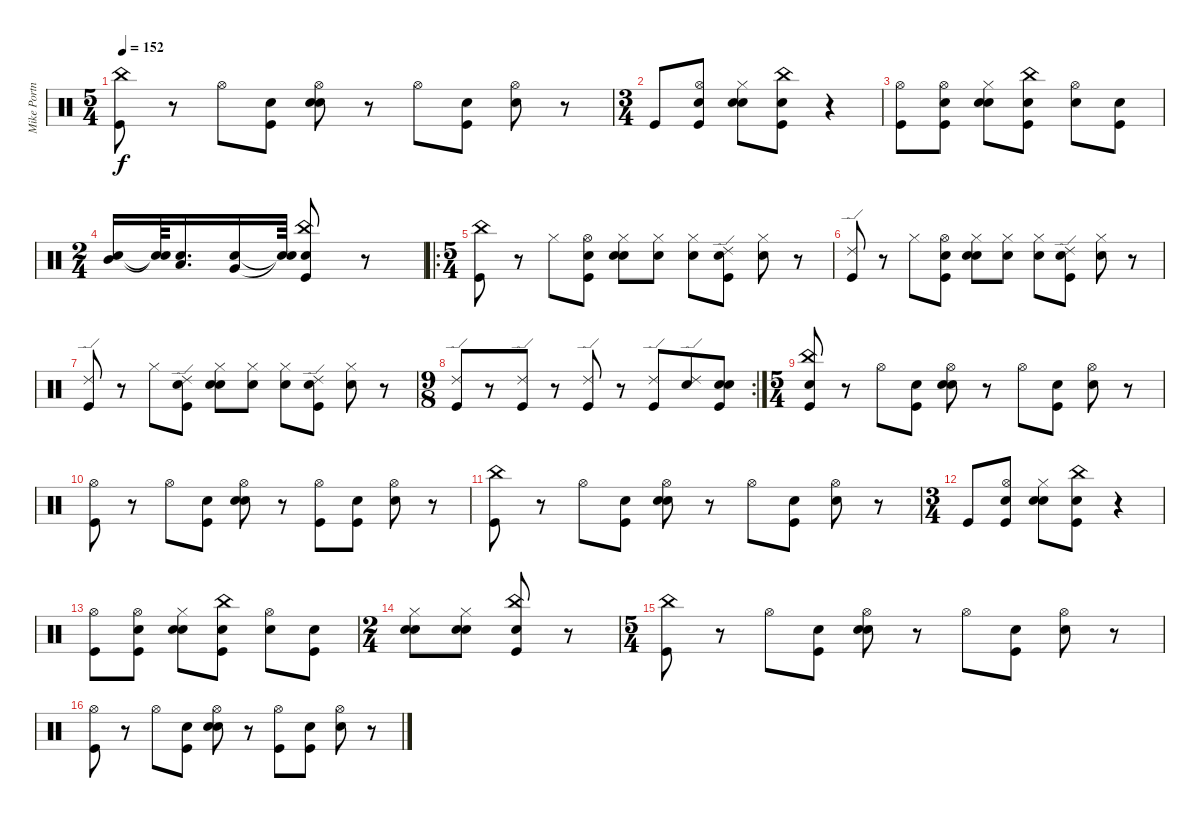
\track ("Mike Portnoy" "Mike Portn") {instrument percussion}
\staff {score}
\articulation defaults
\ts (5 4)
\tempo 152
\clef neutral
\ks c
("Kick (hit)" "China (hit)").8{dy f} r.8 "Hi-Hat (open)".8 ("Snare (hit)" "Kick (hit)").8 ("Snare (hit)" "Snare (hit) 2" "Hi-Hat (open)").8 r.8 "Hi-Hat (open)".8 ("Snare (hit)" "Kick (hit)").8 ("Snare (hit)" "Hi-Hat (open)").8 r.8 |
\ts (3 4)
"Kick (hit)".8 ("Snare (hit)" "Kick (hit)" "Hi-Hat (open)").8 ("Snare (hit)" "Snare (hit) 2" "Hi-Hat (closed)").8 ("Snare (hit)" "Kick (hit)" "China (hit)").8 r.4 |
("Kick (hit)" "Hi-Hat (open)").8 ("Snare (hit)" "Kick (hit)" "Hi-Hat (open)").8 ("Snare (hit)" "Snare (hit) 2" "Hi-Hat (closed)").8 ("Snare (hit)" "Kick (hit)" "China (hit)").8 ("Snare (hit)" "Hi-Hat (open)").8 ("Snare (hit)" "Kick (hit)").8 |
\ts (2 4)
("Snare (hit)" "Mid Tom (hit)").16 ("Snare (hit)"{t} "Snare (hit)"{t}).64 ("Snare (hit)" "Low Tom (hit)").16{d} ("Snare (hit)" "Very Low Tom (hit)").16 ("Snare (hit)"{t} "Snare (hit)"{t}).64 ("Snare (hit)" "Kick (hit)" "China (hit)").8 r.8 |
\ro
\ts (5 4)
("Kick (hit)" "China (hit)").8 r.8 "Hi-Hat (closed)".8 ("Snare (hit)" "Kick (hit)" "Hi-Hat (open)").8 ("Snare (hit)" "Snare (hit) 2" "Hi-Hat (closed)").8 ("Snare (hit)" "Hi-Hat (closed)").8 ("Snare (hit)" "Hi-Hat (closed)").8 ("Snare (hit)" "Kick (hit)" "Ride (edge) 2").8 ("Snare (hit)" "Hi-Hat (closed)").8 r.8 |
("Kick (hit)" "Ride (edge) 2").8 r.8 "Hi-Hat (closed)".8 ("Snare (hit)" "Kick (hit)" "Hi-Hat (open)").8 ("Snare (hit)" "Snare (hit) 2" "Hi-Hat (closed)").8 ("Snare (hit)" "Hi-Hat (closed)").8 ("Snare (hit)" "Hi-Hat (closed)").8 ("Snare (hit)" "Kick (hit)" "Ride (edge) 2").8 ("Snare (hit)" "Hi-Hat (closed)").8 r.8 |
("Kick (hit)" "Ride (edge) 2").8 r.8 "Hi-Hat (closed)".8 ("Snare (hit)" "Kick (hit)" "Ride (edge) 2").8 ("Snare (hit)" "Snare (hit) 2" "Hi-Hat (closed)").8 ("Snare (hit)" "Hi-Hat (closed)").8 ("Snare (hit)" "Hi-Hat (closed)").8 ("Snare (hit)" "Kick (hit)" "Ride (edge) 2").8 ("Snare (hit)" "Hi-Hat (closed)").8 r.8 |
\rc 2
\ts (9 8)
("Kick (hit)" "Ride (edge) 2").8 r.8 ("Kick (hit)" "Ride (edge) 2").8 r.8 ("Kick (hit)" "Ride (edge) 2").8 r.8 ("Kick (hit)" "Ride (edge) 2").8 ("Snare (hit)" "Ride (edge) 2").8 ("Snare (hit)" "Kick (hit)" "Snare (hit) 2").8 |
\ts (5 4)
("Snare (hit)" "Kick (hit)" "China (hit)").8 r.8 "Hi-Hat (open)".8 ("Snare (hit)" "Kick (hit)").8 ("Snare (hit)" "Snare (hit) 2" "Hi-Hat (open)").8 r.8 "Hi-Hat (open)".8 ("Snare (hit)" "Kick (hit)").8 ("Snare (hit)" "Hi-Hat (open)").8 r.8 |
("Kick (hit)" "Hi-Hat (open)").8 r.8 "Hi-Hat (open)".8 ("Snare (hit)" "Kick (hit)").8 ("Snare (hit)" "Snare (hit) 2" "Hi-Hat (open)").8 r.8 ("Kick (hit)" "Hi-Hat (open)").8 ("Snare (hit)" "Kick (hit)").8 ("Snare (hit)" "Hi-Hat (open)").8 r.8 |
("Kick (hit)" "China (hit)").8 r.8 "Hi-Hat (open)".8 ("Snare (hit)" "Kick (hit)").8 ("Snare (hit)" "Snare (hit) 2" "Hi-Hat (open)").8 r.8 "Hi-Hat (open)".8 ("Snare (hit)" "Kick (hit)").8 ("Snare (hit)" "Hi-Hat (open)").8 r.8 |
\ts (3 4)
"Kick (hit)".8 ("Snare (hit)" "Kick (hit)" "Hi-Hat (open)").8 ("Snare (hit)" "Snare (hit) 2" "Hi-Hat (closed)").8 ("Snare (hit)" "Kick (hit)" "China (hit)").8 r.4 |
("Kick (hit)" "Hi-Hat (open)").8 ("Snare (hit)" "Kick (hit)" "Hi-Hat (open)").8 ("Snare (hit)" "Snare (hit) 2" "Hi-Hat (closed)").8 ("Snare (hit)" "Kick (hit)" "China (hit)").8 ("Snare (hit)" "Hi-Hat (open)").8 ("Snare (hit)" "Kick (hit)").8 |
\ts (2 4)
("Snare (hit)" "Snare (hit) 2" "Hi-Hat (closed)").8 ("Snare (hit)" "Snare (hit) 2" "Hi-Hat (closed)").8 ("Snare (hit)" "Kick (hit)" "China (hit)").8 r.8 |
\ts (5 4)
("Kick (hit)" "China (hit)").8 r.8 "Hi-Hat (open)".8 ("Snare (hit)" "Kick (hit)").8 ("Snare (hit)" "Snare (hit) 2" "Hi-Hat (open)").8 r.8 "Hi-Hat (open)".8 ("Snare (hit)" "Kick (hit)").8 ("Snare (hit)" "Hi-Hat (open)").8 r.8 |
("Kick (hit)" "Hi-Hat (open)").8 r.8 "Hi-Hat (open)".8 ("Snare (hit)" "Kick (hit)").8 ("Snare (hit)" "Snare (hit) 2" "Hi-Hat (open)").8 r.8 ("Kick (hit)" "Hi-Hat (open)").8 ("Snare (hit)" "Kick (hit)").8 ("Snare (hit)" "Hi-Hat (open)").8 r.8
